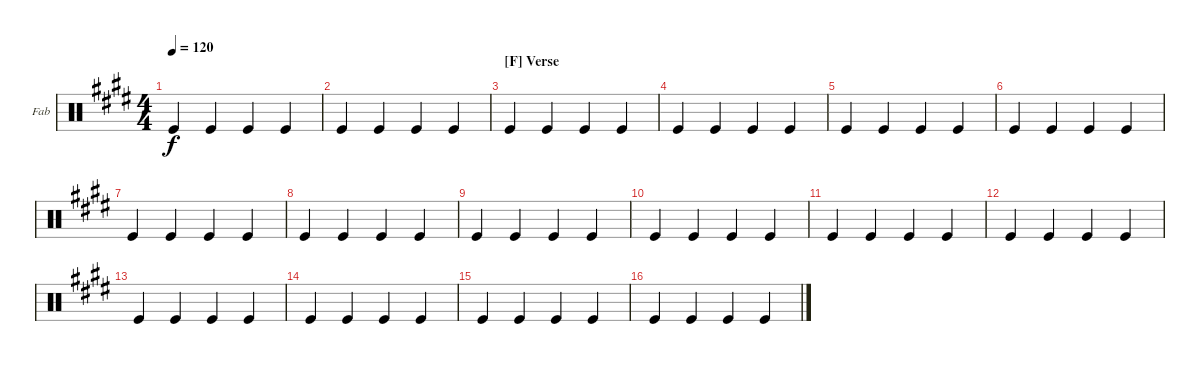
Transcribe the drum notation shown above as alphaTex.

\bracketExtendMode groupsimilarinstruments
\firstSystemTrackNameOrientation horizontal
\otherSystemsTrackNameOrientation horizontal
\track ("Tambourine" "Fab") {instrument percussion}
\staff {score}
\articulation defaults
\ts (4 4)
\tempo 120
\clef neutral
\ks e "Kick (hit)".4{dy f} "Kick (hit)".4 "Kick (hit)".4 "Kick (hit)".4
|
"Kick (hit)".4 "Kick (hit)".4 "Kick (hit)".4 "Kick (hit)".4 |
\section ("F" "Verse")
"Kick (hit)".4 "Kick (hit)".4 "Kick (hit)".4 "Kick (hit)".4 |
"Kick (hit)".4 "Kick (hit)".4 "Kick (hit)".4 "Kick (hit)".4 |
"Kick (hit)".4 "Kick (hit)".4 "Kick (hit)".4 "Kick (hit)".4 |
"Kick (hit)".4 "Kick (hit)".4 "Kick (hit)".4 "Kick (hit)".4 |
"Kick (hit)".4 "Kick (hit)".4 "Kick (hit)".4 "Kick (hit)".4 |
"Kick (hit)".4 "Kick (hit)".4 "Kick (hit)".4 "Kick (hit)".4 |
"Kick (hit)".4 "Kick (hit)".4 "Kick (hit)".4 "Kick (hit)".4 |
"Kick (hit)".4 "Kick (hit)".4 "Kick (hit)".4 "Kick (hit)".4 |
"Kick (hit)".4 "Kick (hit)".4 "Kick (hit)".4 "Kick (hit)".4 |
"Kick (hit)".4 "Kick (hit)".4 "Kick (hit)".4 "Kick (hit)".4 |
"Kick (hit)".4 "Kick (hit)".4 "Kick (hit)".4 "Kick (hit)".4 |
"Kick (hit)".4 "Kick (hit)".4 "Kick (hit)".4 "Kick (hit)".4 |
"Kick (hit)".4 "Kick (hit)".4 "Kick (hit)".4 "Kick (hit)".4 |
"Kick (hit)".4 "Kick (hit)".4 "Kick (hit)".4 "Kick (hit)".4
